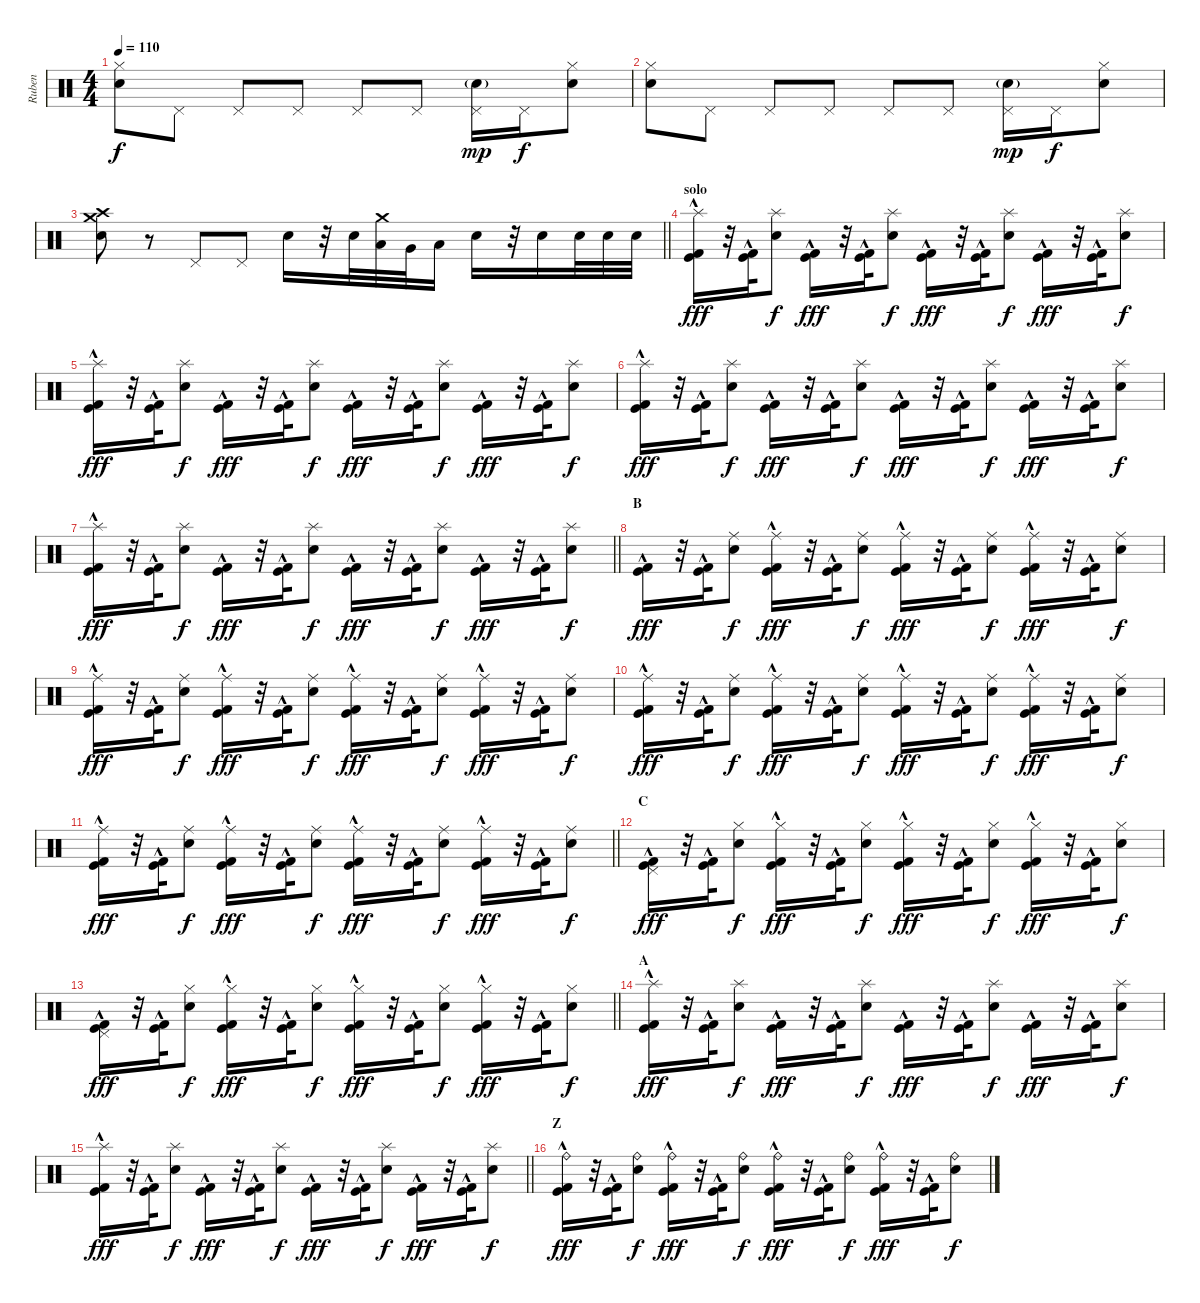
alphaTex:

\track ("Ruben" "Ruben") {instrument percussion}
\staff {score}
\articulation defaults
\ts (4 4)
\tempo 110
\clef neutral
\ks c
("Hi-Hat (closed)" "Snare (hit) 2").8{dy f} "Pedal Hi-Hat (hit)".8 "Pedal Hi-Hat (hit)".8 "Pedal Hi-Hat (hit)".8 "Pedal Hi-Hat (hit)".8 "Pedal Hi-Hat (hit)".8 ("Pedal Hi-Hat (hit)" "Snare (hit) 2"{g}).16{dy mp} "Pedal Hi-Hat (hit)".16{dy f} ("Hi-Hat (closed)" "Snare (hit) 2").8 |
("Hi-Hat (closed)" "Snare (hit) 2").8 "Pedal Hi-Hat (hit)".8 "Pedal Hi-Hat (hit)".8 "Pedal Hi-Hat (hit)".8 "Pedal Hi-Hat (hit)".8 "Pedal Hi-Hat (hit)".8 ("Pedal Hi-Hat (hit)" "Snare (hit) 2"{g}).16{dy mp} "Pedal Hi-Hat (hit)".16{dy f} ("Hi-Hat (closed)" "Snare (hit) 2").8 |
\barLineRight lightlight
("Crash medium (hit)" "Crash high (hit)" "Electric Snare (hit)").8 r.8 "Pedal Hi-Hat (hit)".8 "Pedal Hi-Hat (hit)".8 "Snare (hit) 2".16 r.32 "Snare (hit) 2".32 ("Crash medium (hit)" "Low Tom (hit)").32 "Very Low Tom (hit)".32 "Low Floor Tom (hit)".16 "Snare (hit) 2".16 r.32 "Snare (hit) 2".16 "Snare (hit) 2".32 "Snare (hit) 2".32 "Snare (hit) 2".32 |
\section ("" "solo")
("Splash (hit)" "Kick (hit)"{hac} "Kick (hit) 2"{hac}).16{dy fff} r.32 ("Kick (hit)"{hac} "Kick (hit) 2"{hac}).32 ("Splash (hit)" "Snare (hit) 2").8{dy f} ("Kick (hit)"{hac} "Kick (hit) 2"{hac}).16{dy fff} r.32 ("Kick (hit)"{hac} "Kick (hit) 2"{hac}).32 ("Splash (hit)" "Snare (hit) 2").8{dy f} ("Kick (hit)"{hac} "Kick (hit) 2"{hac}).16{dy fff} r.32 ("Kick (hit)"{hac} "Kick (hit) 2"{hac}).32 ("Splash (hit)" "Snare (hit) 2").8{dy f} ("Kick (hit)"{hac} "Kick (hit) 2"{hac}).16{dy fff} r.32 ("Kick (hit)"{hac} "Kick (hit) 2"{hac}).32 ("Splash (hit)" "Snare (hit) 2").8{dy f} |
("Splash (hit)" "Kick (hit)"{hac} "Kick (hit) 2"{hac}).16{dy fff} r.32 ("Kick (hit)"{hac} "Kick (hit) 2"{hac}).32 ("Splash (hit)" "Snare (hit) 2").8{dy f} ("Kick (hit)"{hac} "Kick (hit) 2"{hac}).16{dy fff} r.32 ("Kick (hit)"{hac} "Kick (hit) 2"{hac}).32 ("Splash (hit)" "Snare (hit) 2").8{dy f} ("Kick (hit)"{hac} "Kick (hit) 2"{hac}).16{dy fff} r.32 ("Kick (hit)"{hac} "Kick (hit) 2"{hac}).32 ("Splash (hit)" "Snare (hit) 2").8{dy f} ("Kick (hit)"{hac} "Kick (hit) 2"{hac}).16{dy fff} r.32 ("Kick (hit)"{hac} "Kick (hit) 2"{hac}).32 ("Splash (hit)" "Snare (hit) 2").8{dy f} |
("Splash (hit)" "Kick (hit)"{hac} "Kick (hit) 2"{hac}).16{dy fff} r.32 ("Kick (hit)"{hac} "Kick (hit) 2"{hac}).32 ("Splash (hit)" "Snare (hit) 2").8{dy f} ("Kick (hit)"{hac} "Kick (hit) 2"{hac}).16{dy fff} r.32 ("Kick (hit)"{hac} "Kick (hit) 2"{hac}).32 ("Splash (hit)" "Snare (hit) 2").8{dy f} ("Kick (hit)"{hac} "Kick (hit) 2"{hac}).16{dy fff} r.32 ("Kick (hit)"{hac} "Kick (hit) 2"{hac}).32 ("Splash (hit)" "Snare (hit) 2").8{dy f} ("Kick (hit)"{hac} "Kick (hit) 2"{hac}).16{dy fff} r.32 ("Kick (hit)"{hac} "Kick (hit) 2"{hac}).32 ("Splash (hit)" "Snare (hit) 2").8{dy f} |
\barLineRight lightlight
("Splash (hit)" "Kick (hit)"{hac} "Kick (hit) 2"{hac}).16{dy fff} r.32 ("Kick (hit)"{hac} "Kick (hit) 2"{hac}).32 ("Splash (hit)" "Snare (hit) 2").8{dy f} ("Kick (hit)"{hac} "Kick (hit) 2"{hac}).16{dy fff} r.32 ("Kick (hit)"{hac} "Kick (hit) 2"{hac}).32 ("Splash (hit)" "Snare (hit) 2").8{dy f} ("Kick (hit)"{hac} "Kick (hit) 2"{hac}).16{dy fff} r.32 ("Kick (hit)"{hac} "Kick (hit) 2"{hac}).32 ("Splash (hit)" "Snare (hit) 2").8{dy f} ("Kick (hit)"{hac} "Kick (hit) 2"{hac}).16{dy fff} r.32 ("Kick (hit)"{hac} "Kick (hit) 2"{hac}).32 ("Splash (hit)" "Snare (hit) 2").8{dy f} |
\section ("" "B")
("Kick (hit)"{hac} "Kick (hit) 2"{hac}).16{dy fff} r.32 ("Kick (hit)"{hac} "Kick (hit) 2"{hac}).32 ("Ride (middle)" "Snare (hit) 2").8{dy f} ("Ride (middle)" "Kick (hit)"{hac} "Kick (hit) 2"{hac}).16{dy fff} r.32 ("Kick (hit)"{hac} "Kick (hit) 2"{hac}).32 ("Ride (middle)" "Snare (hit) 2").8{dy f} ("Ride (middle)" "Kick (hit)"{hac} "Kick (hit) 2"{hac}).16{dy fff} r.32 ("Kick (hit)"{hac} "Kick (hit) 2"{hac}).32 ("Ride (middle)" "Snare (hit) 2").8{dy f} ("Ride (middle)" "Kick (hit)"{hac} "Kick (hit) 2"{hac}).16{dy fff} r.32 ("Kick (hit)"{hac} "Kick (hit) 2"{hac}).32 ("Ride (middle)" "Snare (hit) 2").8{dy f} |
("Ride (middle)" "Kick (hit)"{hac} "Kick (hit) 2"{hac}).16{dy fff} r.32 ("Kick (hit)"{hac} "Kick (hit) 2"{hac}).32 ("Ride (middle)" "Snare (hit) 2").8{dy f} ("Ride (middle)" "Kick (hit)"{hac} "Kick (hit) 2"{hac}).16{dy fff} r.32 ("Kick (hit)"{hac} "Kick (hit) 2"{hac}).32 ("Ride (middle)" "Snare (hit) 2").8{dy f} ("Ride (middle)" "Kick (hit)"{hac} "Kick (hit) 2"{hac}).16{dy fff} r.32 ("Kick (hit)"{hac} "Kick (hit) 2"{hac}).32 ("Ride (middle)" "Snare (hit) 2").8{dy f} ("Ride (middle)" "Kick (hit)"{hac} "Kick (hit) 2"{hac}).16{dy fff} r.32 ("Kick (hit)"{hac} "Kick (hit) 2"{hac}).32 ("Ride (middle)" "Snare (hit) 2").8{dy f} |
("Ride (middle)" "Kick (hit)"{hac} "Kick (hit) 2"{hac}).16{dy fff} r.32 ("Kick (hit)"{hac} "Kick (hit) 2"{hac}).32 ("Ride (middle)" "Snare (hit) 2").8{dy f} ("Ride (middle)" "Kick (hit)"{hac} "Kick (hit) 2"{hac}).16{dy fff} r.32 ("Kick (hit)"{hac} "Kick (hit) 2"{hac}).32 ("Ride (middle)" "Snare (hit) 2").8{dy f} ("Ride (middle)" "Kick (hit)"{hac} "Kick (hit) 2"{hac}).16{dy fff} r.32 ("Kick (hit)"{hac} "Kick (hit) 2"{hac}).32 ("Ride (middle)" "Snare (hit) 2").8{dy f} ("Ride (middle)" "Kick (hit)"{hac} "Kick (hit) 2"{hac}).16{dy fff} r.32 ("Kick (hit)"{hac} "Kick (hit) 2"{hac}).32 ("Ride (middle)" "Snare (hit) 2").8{dy f} |
\barLineRight lightlight
("Ride (middle)" "Kick (hit)"{hac} "Kick (hit) 2"{hac}).16{dy fff} r.32 ("Kick (hit)"{hac} "Kick (hit) 2"{hac}).32 ("Ride (middle)" "Snare (hit) 2").8{dy f} ("Ride (middle)" "Kick (hit)"{hac} "Kick (hit) 2"{hac}).16{dy fff} r.32 ("Kick (hit)"{hac} "Kick (hit) 2"{hac}).32 ("Ride (middle)" "Snare (hit) 2").8{dy f} ("Ride (middle)" "Kick (hit)"{hac} "Kick (hit) 2"{hac}).16{dy fff} r.32 ("Kick (hit)"{hac} "Kick (hit) 2"{hac}).32 ("Ride (middle)" "Snare (hit) 2").8{dy f} ("Ride (middle)" "Kick (hit)"{hac} "Kick (hit) 2"{hac}).16{dy fff} r.32 ("Kick (hit)"{hac} "Kick (hit) 2"{hac}).32 ("Ride (middle)" "Snare (hit) 2").8{dy f} |
\section ("" "C")
("Pedal Hi-Hat (hit)" "Kick (hit)"{hac} "Kick (hit) 2"{hac}).16{dy fff} r.32 ("Kick (hit)"{hac} "Kick (hit) 2"{hac}).32 ("Hi-Hat (closed)" "Snare (hit) 2").8{dy f} ("Hi-Hat (closed)" "Kick (hit)"{hac} "Kick (hit) 2"{hac}).16{dy fff} r.32 ("Kick (hit)"{hac} "Kick (hit) 2"{hac}).32 ("Hi-Hat (closed)" "Snare (hit) 2").8{dy f} ("Hi-Hat (closed)" "Kick (hit)"{hac} "Kick (hit) 2"{hac}).16{dy fff} r.32 ("Kick (hit)"{hac} "Kick (hit) 2"{hac}).32 ("Hi-Hat (closed)" "Snare (hit) 2").8{dy f} ("Hi-Hat (closed)" "Kick (hit)"{hac} "Kick (hit) 2"{hac}).16{dy fff} r.32 ("Kick (hit)"{hac} "Kick (hit) 2"{hac}).32 ("Hi-Hat (closed)" "Snare (hit) 2").8{dy f} |
\barLineRight lightlight
("Pedal Hi-Hat (hit)" "Kick (hit)"{hac} "Kick (hit) 2"{hac}).16{dy fff} r.32 ("Kick (hit)"{hac} "Kick (hit) 2"{hac}).32 ("Hi-Hat (closed)" "Snare (hit) 2").8{dy f} ("Hi-Hat (closed)" "Kick (hit)"{hac} "Kick (hit) 2"{hac}).16{dy fff} r.32 ("Kick (hit)"{hac} "Kick (hit) 2"{hac}).32 ("Hi-Hat (closed)" "Snare (hit) 2").8{dy f} ("Hi-Hat (closed)" "Kick (hit)"{hac} "Kick (hit) 2"{hac}).16{dy fff} r.32 ("Kick (hit)"{hac} "Kick (hit) 2"{hac}).32 ("Hi-Hat (closed)" "Snare (hit) 2").8{dy f} ("Hi-Hat (closed)" "Kick (hit)"{hac} "Kick (hit) 2"{hac}).16{dy fff} r.32 ("Kick (hit)"{hac} "Kick (hit) 2"{hac}).32 ("Hi-Hat (closed)" "Snare (hit) 2").8{dy f} |
\section ("" "A")
("Splash (hit)" "Kick (hit)"{hac} "Kick (hit) 2"{hac}).16{dy fff} r.32 ("Kick (hit)"{hac} "Kick (hit) 2"{hac}).32 ("Splash (hit)" "Snare (hit) 2").8{dy f} ("Kick (hit)"{hac} "Kick (hit) 2"{hac}).16{dy fff} r.32 ("Kick (hit)"{hac} "Kick (hit) 2"{hac}).32 ("Splash (hit)" "Snare (hit) 2").8{dy f} ("Kick (hit)"{hac} "Kick (hit) 2"{hac}).16{dy fff} r.32 ("Kick (hit)"{hac} "Kick (hit) 2"{hac}).32 ("Splash (hit)" "Snare (hit) 2").8{dy f} ("Kick (hit)"{hac} "Kick (hit) 2"{hac}).16{dy fff} r.32 ("Kick (hit)"{hac} "Kick (hit) 2"{hac}).32 ("Splash (hit)" "Snare (hit) 2").8{dy f} |
\barLineRight lightlight
("Splash (hit)" "Kick (hit)"{hac} "Kick (hit) 2"{hac}).16{dy fff} r.32 ("Kick (hit)"{hac} "Kick (hit) 2"{hac}).32 ("Splash (hit)" "Snare (hit) 2").8{dy f} ("Kick (hit)"{hac} "Kick (hit) 2"{hac}).16{dy fff} r.32 ("Kick (hit)"{hac} "Kick (hit) 2"{hac}).32 ("Splash (hit)" "Snare (hit) 2").8{dy f} ("Kick (hit)"{hac} "Kick (hit) 2"{hac}).16{dy fff} r.32 ("Kick (hit)"{hac} "Kick (hit) 2"{hac}).32 ("Splash (hit)" "Snare (hit) 2").8{dy f} ("Kick (hit)"{hac} "Kick (hit) 2"{hac}).16{dy fff} r.32 ("Kick (hit)"{hac} "Kick (hit) 2"{hac}).32 ("Splash (hit)" "Snare (hit) 2").8{dy f} |
\section ("" "Z")
("Ride (bell)" "Kick (hit)"{hac} "Kick (hit) 2"{hac}).16{dy fff} r.32 ("Kick (hit)"{hac} "Kick (hit) 2"{hac}).32 ("Ride (bell)" "Snare (hit) 2").8{dy f} ("Ride (bell)" "Kick (hit)"{hac} "Kick (hit) 2"{hac}).16{dy fff} r.32 ("Kick (hit)"{hac} "Kick (hit) 2"{hac}).32 ("Ride (bell)" "Snare (hit) 2").8{dy f} ("Ride (bell)" "Kick (hit)"{hac} "Kick (hit) 2"{hac}).16{dy fff} r.32 ("Kick (hit)"{hac} "Kick (hit) 2"{hac}).32 ("Ride (bell)" "Snare (hit) 2").8{dy f} ("Ride (bell)" "Kick (hit)"{hac} "Kick (hit) 2"{hac}).16{dy fff} r.32 ("Kick (hit)"{hac} "Kick (hit) 2"{hac}).32 ("Ride (bell)" "Snare (hit) 2").8{dy f}
